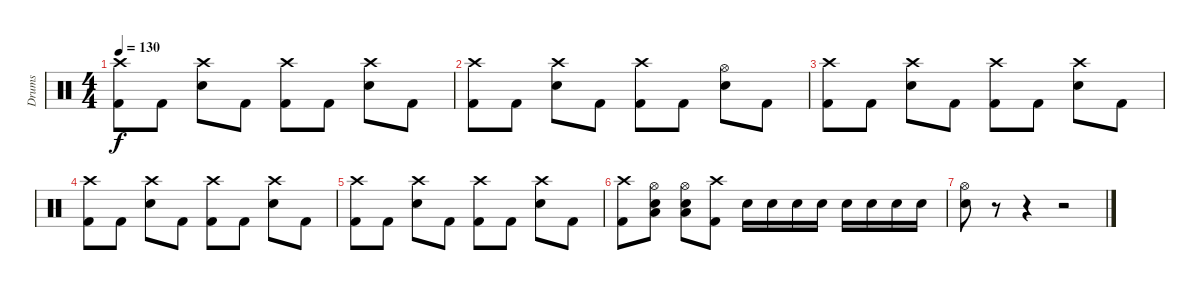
\track ("Drums" "Drums") {instrument percussion}
\staff {score}
\articulation defaults
\ts (4 4)
\tempo 130
\clef neutral
\ks c
("Crash high (hit)" "Kick (hit) 2").8{dy f} "Kick (hit) 2".8 ("Crash high (hit)" "Electric Snare (hit)").8 "Kick (hit) 2".8 ("Crash high (hit)" "Kick (hit) 2").8 "Kick (hit) 2".8 ("Crash high (hit)" "Electric Snare (hit)").8 "Kick (hit) 2".8 |
("Crash high (hit)" "Kick (hit) 2").8 "Kick (hit) 2".8 ("Crash high (hit)" "Electric Snare (hit)").8 "Kick (hit) 2".8 ("Crash high (hit)" "Kick (hit) 2").8 "Kick (hit) 2".8 ("Hi-Hat (open)" "Electric Snare (hit)").8 "Kick (hit) 2".8 |
("Crash high (hit)" "Kick (hit) 2").8 "Kick (hit) 2".8 ("Crash high (hit)" "Electric Snare (hit)").8 "Kick (hit) 2".8 ("Crash high (hit)" "Kick (hit) 2").8 "Kick (hit) 2".8 ("Crash high (hit)" "Electric Snare (hit)").8 "Kick (hit) 2".8 |
("Crash high (hit)" "Kick (hit) 2").8 "Kick (hit) 2".8 ("Crash high (hit)" "Electric Snare (hit)").8 "Kick (hit) 2".8 ("Crash high (hit)" "Kick (hit) 2").8 "Kick (hit) 2".8 ("Crash high (hit)" "Electric Snare (hit)").8 "Kick (hit) 2".8 |
("Crash high (hit)" "Kick (hit) 2").8 "Kick (hit) 2".8 ("Crash high (hit)" "Electric Snare (hit)").8 "Kick (hit) 2".8 ("Crash high (hit)" "Kick (hit) 2").8 "Kick (hit) 2".8 ("Crash high (hit)" "Electric Snare (hit)").8 "Kick (hit) 2".8 |
("Crash high (hit)" "Kick (hit) 2").8 ("Hi-Hat (open)" "Low Floor Tom (hit)" "Electric Snare (hit)").8 ("Hi-Hat (open)" "Low Floor Tom (hit)" "Electric Snare (hit)").8 ("Crash high (hit)" "Kick (hit) 2").8 "Snare (hit) 2".16 "Snare (hit) 2".16 "Snare (hit) 2".16 "Snare (hit) 2".16 "Snare (hit) 2".16 "Snare (hit) 2".16 "Snare (hit) 2".16 "Snare (hit) 2".16 |
("Hi-Hat (open)" "Snare (hit) 2").8 r.8 r.4 r.2
